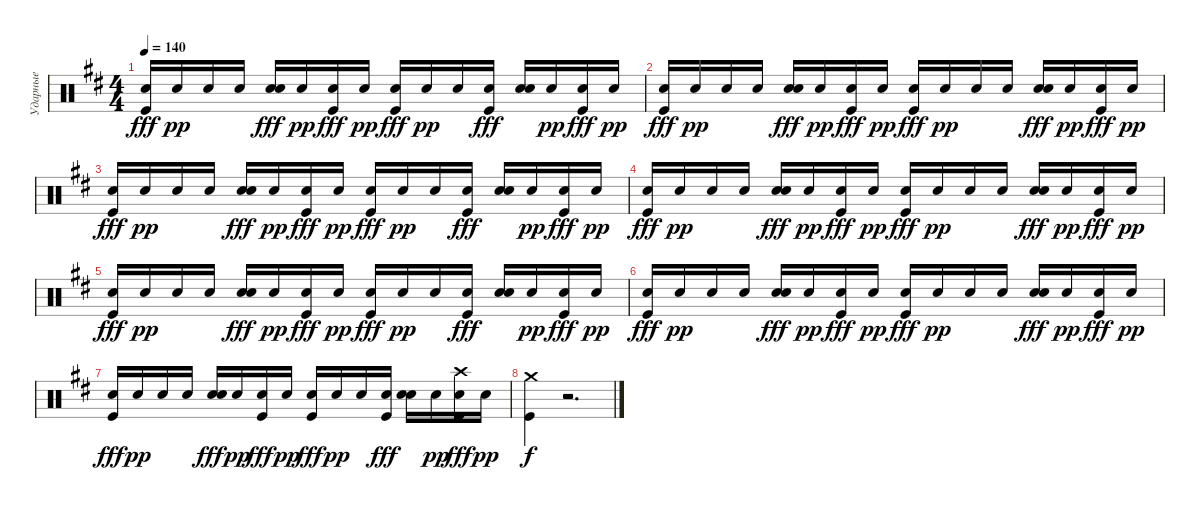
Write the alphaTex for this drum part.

\track ("Ударные" "Ударные") {instrument percussion}
\staff {score}
\articulation defaults
\ts (4 4)
\tempo 140
\clef neutral
\ks d
("Electric Snare (hit)" "Kick (hit)").16{dy fff} "Electric Snare (hit)".16{dy pp} "Electric Snare (hit)".16 "Electric Snare (hit)".16 ("Electric Snare (hit)" "Electric Snare (hit)").16{dy fff} "Electric Snare (hit)".16{dy pp} ("Electric Snare (hit)" "Kick (hit)").16{dy fff} "Electric Snare (hit)".16{dy pp} ("Electric Snare (hit)" "Kick (hit)").16{dy fff} "Electric Snare (hit)".16{dy pp} "Electric Snare (hit)".16 ("Electric Snare (hit)" "Kick (hit)").16{dy fff} ("Electric Snare (hit)" "Electric Snare (hit)").16 "Electric Snare (hit)".16{dy pp} ("Electric Snare (hit)" "Kick (hit)").16{dy fff} "Electric Snare (hit)".16{dy pp} |
("Electric Snare (hit)" "Kick (hit)").16{dy fff} "Electric Snare (hit)".16{dy pp} "Electric Snare (hit)".16 "Electric Snare (hit)".16 ("Electric Snare (hit)" "Electric Snare (hit)").16{dy fff} "Electric Snare (hit)".16{dy pp} ("Electric Snare (hit)" "Kick (hit)").16{dy fff} "Electric Snare (hit)".16{dy pp} ("Electric Snare (hit)" "Kick (hit)").16{dy fff} "Electric Snare (hit)".16{dy pp} "Electric Snare (hit)".16 "Electric Snare (hit)".16 ("Electric Snare (hit)" "Electric Snare (hit)").16{dy fff} "Electric Snare (hit)".16{dy pp} ("Electric Snare (hit)" "Kick (hit)").16{dy fff} "Electric Snare (hit)".16{dy pp} |
("Electric Snare (hit)" "Kick (hit)").16{dy fff} "Electric Snare (hit)".16{dy pp} "Electric Snare (hit)".16 "Electric Snare (hit)".16 ("Electric Snare (hit)" "Electric Snare (hit)").16{dy fff} "Electric Snare (hit)".16{dy pp} ("Electric Snare (hit)" "Kick (hit)").16{dy fff} "Electric Snare (hit)".16{dy pp} ("Electric Snare (hit)" "Kick (hit)").16{dy fff} "Electric Snare (hit)".16{dy pp} "Electric Snare (hit)".16 ("Electric Snare (hit)" "Kick (hit)").16{dy fff} ("Electric Snare (hit)" "Electric Snare (hit)").16 "Electric Snare (hit)".16{dy pp} ("Electric Snare (hit)" "Kick (hit)").16{dy fff} "Electric Snare (hit)".16{dy pp} |
("Electric Snare (hit)" "Kick (hit)").16{dy fff} "Electric Snare (hit)".16{dy pp} "Electric Snare (hit)".16 "Electric Snare (hit)".16 ("Electric Snare (hit)" "Electric Snare (hit)").16{dy fff} "Electric Snare (hit)".16{dy pp} ("Electric Snare (hit)" "Kick (hit)").16{dy fff} "Electric Snare (hit)".16{dy pp} ("Electric Snare (hit)" "Kick (hit)").16{dy fff} "Electric Snare (hit)".16{dy pp} "Electric Snare (hit)".16 "Electric Snare (hit)".16 ("Electric Snare (hit)" "Electric Snare (hit)").16{dy fff} "Electric Snare (hit)".16{dy pp} ("Electric Snare (hit)" "Kick (hit)").16{dy fff} "Electric Snare (hit)".16{dy pp} |
("Electric Snare (hit)" "Kick (hit)").16{dy fff} "Electric Snare (hit)".16{dy pp} "Electric Snare (hit)".16 "Electric Snare (hit)".16 ("Electric Snare (hit)" "Electric Snare (hit)").16{dy fff} "Electric Snare (hit)".16{dy pp} ("Electric Snare (hit)" "Kick (hit)").16{dy fff} "Electric Snare (hit)".16{dy pp} ("Electric Snare (hit)" "Kick (hit)").16{dy fff} "Electric Snare (hit)".16{dy pp} "Electric Snare (hit)".16 ("Electric Snare (hit)" "Kick (hit)").16{dy fff} ("Electric Snare (hit)" "Electric Snare (hit)").16 "Electric Snare (hit)".16{dy pp} ("Electric Snare (hit)" "Kick (hit)").16{dy fff} "Electric Snare (hit)".16{dy pp} |
("Electric Snare (hit)" "Kick (hit)").16{dy fff} "Electric Snare (hit)".16{dy pp} "Electric Snare (hit)".16 "Electric Snare (hit)".16 ("Electric Snare (hit)" "Electric Snare (hit)").16{dy fff} "Electric Snare (hit)".16{dy pp} ("Electric Snare (hit)" "Kick (hit)").16{dy fff} "Electric Snare (hit)".16{dy pp} ("Electric Snare (hit)" "Kick (hit)").16{dy fff} "Electric Snare (hit)".16{dy pp} "Electric Snare (hit)".16 "Electric Snare (hit)".16 ("Electric Snare (hit)" "Electric Snare (hit)").16{dy fff} "Electric Snare (hit)".16{dy pp} ("Electric Snare (hit)" "Kick (hit)").16{dy fff} "Electric Snare (hit)".16{dy pp} |
("Electric Snare (hit)" "Kick (hit)").16{dy fff} "Electric Snare (hit)".16{dy pp} "Electric Snare (hit)".16 "Electric Snare (hit)".16 ("Electric Snare (hit)" "Electric Snare (hit)").16{dy fff} "Electric Snare (hit)".16{dy pp} ("Electric Snare (hit)" "Kick (hit)").16{dy fff} "Electric Snare (hit)".16{dy pp} ("Electric Snare (hit)" "Kick (hit)").16{dy fff} "Electric Snare (hit)".16{dy pp} "Electric Snare (hit)".16 ("Electric Snare (hit)" "Kick (hit)").16{dy fff} ("Electric Snare (hit)" "Electric Snare (hit)").16 "Electric Snare (hit)".16{dy pp} ("Crash high (hit)" "Electric Snare (hit)" "Kick (hit)").16{dy fff} "Electric Snare (hit)".16{dy pp} |
("Crash medium (hit)" "Kick (hit)").4{dy f} r.2{d}
